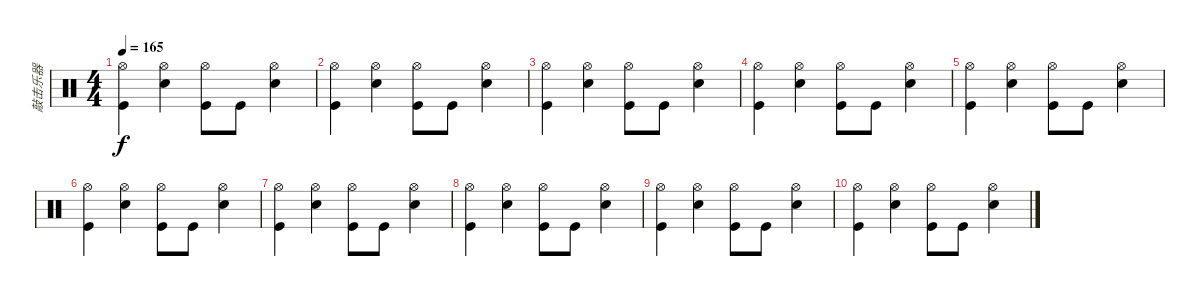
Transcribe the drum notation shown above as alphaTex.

\track ("敲击乐器" "敲击乐器") {instrument percussion}
\staff {score}
\articulation defaults
\ts (4 4)
\tempo 165
\clef neutral
\ks c
("Hi-Hat (open)" "Kick (hit)").4{dy f} ("Hi-Hat (open)" "Electric Snare (hit)").4 ("Hi-Hat (open)" "Kick (hit)").8 "Kick (hit)".8 ("Hi-Hat (open)" "Electric Snare (hit)").4 |
("Hi-Hat (open)" "Kick (hit)").4 ("Hi-Hat (open)" "Electric Snare (hit)").4 ("Hi-Hat (open)" "Kick (hit)").8 "Kick (hit)".8 ("Hi-Hat (open)" "Electric Snare (hit)").4 |
("Hi-Hat (open)" "Kick (hit)").4 ("Hi-Hat (open)" "Electric Snare (hit)").4 ("Hi-Hat (open)" "Kick (hit)").8 "Kick (hit)".8 ("Hi-Hat (open)" "Electric Snare (hit)").4 |
("Hi-Hat (open)" "Kick (hit)").4 ("Hi-Hat (open)" "Electric Snare (hit)").4 ("Hi-Hat (open)" "Kick (hit)").8 "Kick (hit)".8 ("Hi-Hat (open)" "Electric Snare (hit)").4 |
("Hi-Hat (open)" "Kick (hit)").4 ("Hi-Hat (open)" "Electric Snare (hit)").4 ("Hi-Hat (open)" "Kick (hit)").8 "Kick (hit)".8 ("Hi-Hat (open)" "Electric Snare (hit)").4 |
("Hi-Hat (open)" "Kick (hit)").4 ("Hi-Hat (open)" "Electric Snare (hit)").4 ("Hi-Hat (open)" "Kick (hit)").8 "Kick (hit)".8 ("Hi-Hat (open)" "Electric Snare (hit)").4 |
("Hi-Hat (open)" "Kick (hit)").4 ("Hi-Hat (open)" "Electric Snare (hit)").4 ("Hi-Hat (open)" "Kick (hit)").8 "Kick (hit)".8 ("Hi-Hat (open)" "Electric Snare (hit)").4 |
("Hi-Hat (open)" "Kick (hit)").4 ("Hi-Hat (open)" "Electric Snare (hit)").4 ("Hi-Hat (open)" "Kick (hit)").8 "Kick (hit)".8 ("Hi-Hat (open)" "Electric Snare (hit)").4 |
("Hi-Hat (open)" "Kick (hit)").4 ("Hi-Hat (open)" "Electric Snare (hit)").4 ("Hi-Hat (open)" "Kick (hit)").8 "Kick (hit)".8 ("Hi-Hat (open)" "Electric Snare (hit)").4 |
("Hi-Hat (open)" "Kick (hit)").4 ("Hi-Hat (open)" "Electric Snare (hit)").4 ("Hi-Hat (open)" "Kick (hit)").8 "Kick (hit)".8 ("Hi-Hat (open)" "Electric Snare (hit)").4
